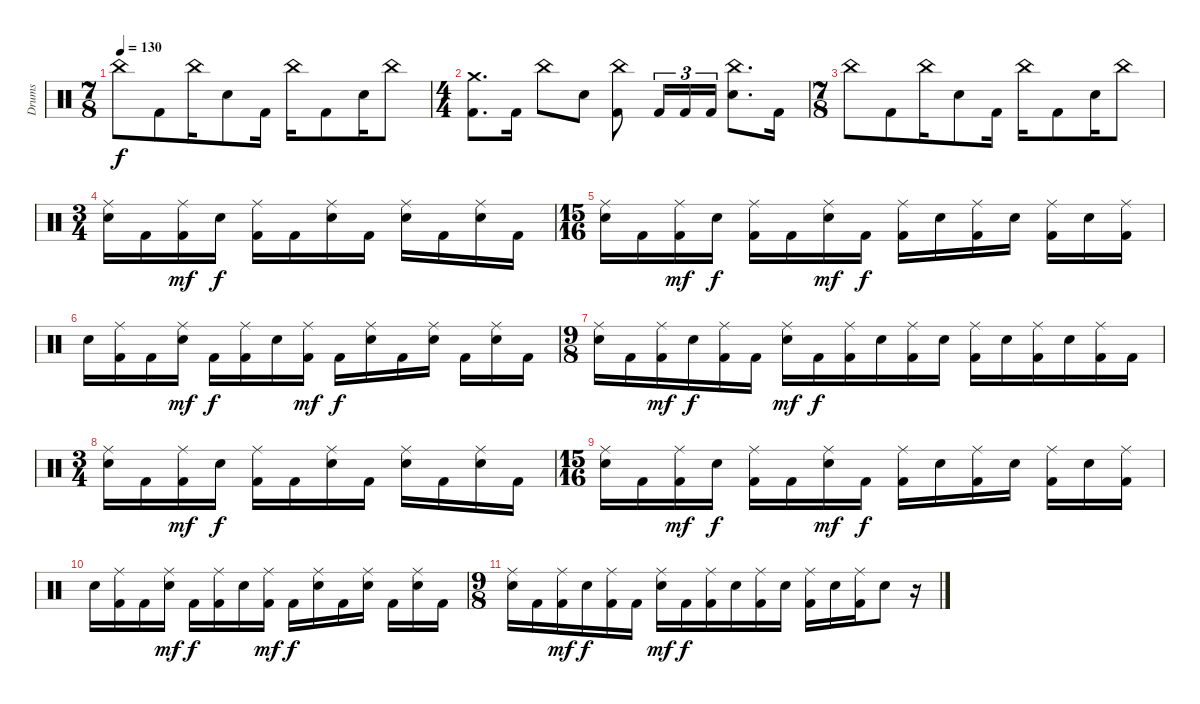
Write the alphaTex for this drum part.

\track ("Drums" "Drums") {instrument percussion}
\staff {score}
\articulation defaults
\ts (7 8)
\tempo 130
\clef neutral
\ks c "China (hit)".8{dy f} "Kick (hit) 2".8 "China (hit)".16 "Electric Snare (hit)".8 "Kick (hit) 2".16 "China (hit)".16 "Kick (hit) 2".8 "Electric Snare (hit)".16 "China (hit)".8
|
\ts (4 4)
("Kick (hit) 2" "Crash medium (hit)").8{d} "Kick (hit) 2".16 "China (hit)".8 "Electric Snare (hit)".8 ("Kick (hit) 2" "China (hit)").8 "Kick (hit) 2".16{tu (3 2)} "Kick (hit) 2".16{tu (3 2)} "Kick (hit) 2".16{tu (3 2)} ("China (hit)" "Electric Snare (hit)").8{d} "Kick (hit) 2".16 |
\ts (7 8)
"China (hit)".8 "Kick (hit) 2".8 "China (hit)".16 "Electric Snare (hit)".8 "Kick (hit) 2".16 "China (hit)".16 "Kick (hit) 2".8 "Electric Snare (hit)".16 "China (hit)".8 |
\ts (3 4)
("Ride (middle)" "Electric Snare (hit)").16 "Kick (hit) 2".16 ("Kick (hit) 2" "Ride (middle)").16{dy mf} "Electric Snare (hit)".16{dy f} ("Kick (hit) 2" "Ride (middle)").16 "Kick (hit) 2".16 ("Ride (middle)" "Electric Snare (hit)").16 "Kick (hit) 2".16 ("Ride (middle)" "Electric Snare (hit)").16 "Kick (hit) 2".16 ("Ride (middle)" "Electric Snare (hit)").16 "Kick (hit) 2".16 |
\ts (15 16)
("Ride (middle)" "Electric Snare (hit)").16 "Kick (hit) 2".16 ("Kick (hit) 2" "Ride (middle)").16{dy mf} "Electric Snare (hit)".16{dy f} ("Kick (hit) 2" "Ride (middle)").16 "Kick (hit) 2".16 ("Ride (middle)" "Electric Snare (hit)").16{dy mf} "Kick (hit) 2".16{dy f} ("Kick (hit) 2" "Ride (middle)").16 "Electric Snare (hit)".16 ("Kick (hit) 2" "Ride (middle)").16 "Electric Snare (hit)".16 ("Kick (hit) 2" "Ride (middle)").16 "Electric Snare (hit)".16 ("Kick (hit) 2" "Ride (middle)").16 |
"Electric Snare (hit)".16 ("Kick (hit) 2" "Ride (middle)").16 "Kick (hit) 2".16 ("Ride (middle)" "Electric Snare (hit)").16{dy mf} "Kick (hit) 2".16{dy f} ("Kick (hit) 2" "Ride (middle)").16 "Electric Snare (hit)".16 ("Kick (hit) 2" "Ride (middle)").16{dy mf} "Kick (hit) 2".16{dy f} ("Ride (middle)" "Electric Snare (hit)").16 "Kick (hit) 2".16 ("Ride (middle)" "Electric Snare (hit)").16 "Kick (hit) 2".16 ("Ride (middle)" "Electric Snare (hit)").16 "Kick (hit) 2".16 |
\ts (9 8)
("Ride (middle)" "Electric Snare (hit)").16 "Kick (hit) 2".16 ("Kick (hit) 2" "Ride (middle)").16{dy mf} "Electric Snare (hit)".16{dy f} ("Kick (hit) 2" "Ride (middle)").16 "Kick (hit) 2".16 ("Ride (middle)" "Electric Snare (hit)").16{dy mf} "Kick (hit) 2".16{dy f} ("Kick (hit) 2" "Ride (middle)").16 "Electric Snare (hit)".16 ("Kick (hit) 2" "Ride (middle)").16 "Electric Snare (hit)".16 ("Kick (hit) 2" "Ride (middle)").16 "Electric Snare (hit)".16 ("Kick (hit) 2" "Ride (middle)").16 "Electric Snare (hit)".16 ("Kick (hit) 2" "Ride (middle)").16 "Kick (hit) 2".16 |
\ts (3 4)
("Ride (middle)" "Electric Snare (hit)").16 "Kick (hit) 2".16 ("Kick (hit) 2" "Ride (middle)").16{dy mf} "Electric Snare (hit)".16{dy f} ("Kick (hit) 2" "Ride (middle)").16 "Kick (hit) 2".16 ("Ride (middle)" "Electric Snare (hit)").16 "Kick (hit) 2".16 ("Ride (middle)" "Electric Snare (hit)").16 "Kick (hit) 2".16 ("Ride (middle)" "Electric Snare (hit)").16 "Kick (hit) 2".16 |
\ts (15 16)
("Ride (middle)" "Electric Snare (hit)").16 "Kick (hit) 2".16 ("Kick (hit) 2" "Ride (middle)").16{dy mf} "Electric Snare (hit)".16{dy f} ("Kick (hit) 2" "Ride (middle)").16 "Kick (hit) 2".16 ("Ride (middle)" "Electric Snare (hit)").16{dy mf} "Kick (hit) 2".16{dy f} ("Kick (hit) 2" "Ride (middle)").16 "Electric Snare (hit)".16 ("Kick (hit) 2" "Ride (middle)").16 "Electric Snare (hit)".16 ("Kick (hit) 2" "Ride (middle)").16 "Electric Snare (hit)".16 ("Kick (hit) 2" "Ride (middle)").16 |
"Electric Snare (hit)".16 ("Kick (hit) 2" "Ride (middle)").16 "Kick (hit) 2".16 ("Ride (middle)" "Electric Snare (hit)").16{dy mf} "Kick (hit) 2".16{dy f} ("Kick (hit) 2" "Ride (middle)").16 "Electric Snare (hit)".16 ("Kick (hit) 2" "Ride (middle)").16{dy mf} "Kick (hit) 2".16{dy f} ("Ride (middle)" "Electric Snare (hit)").16 "Kick (hit) 2".16 ("Ride (middle)" "Electric Snare (hit)").16 "Kick (hit) 2".16 ("Ride (middle)" "Electric Snare (hit)").16 "Kick (hit) 2".16 |
\ts (9 8)
("Ride (middle)" "Electric Snare (hit)").16 "Kick (hit) 2".16 ("Kick (hit) 2" "Ride (middle)").16{dy mf} "Electric Snare (hit)".16{dy f} ("Kick (hit) 2" "Ride (middle)").16 "Kick (hit) 2".16 ("Ride (middle)" "Electric Snare (hit)").16{dy mf} "Kick (hit) 2".16{dy f} ("Kick (hit) 2" "Ride (middle)").16 "Electric Snare (hit)".16 ("Kick (hit) 2" "Ride (middle)").16 "Electric Snare (hit)".16 ("Kick (hit) 2" "Ride (middle)").16 "Electric Snare (hit)".16 ("Kick (hit) 2" "Ride (middle)").16 "Electric Snare (hit)".8 r.16
